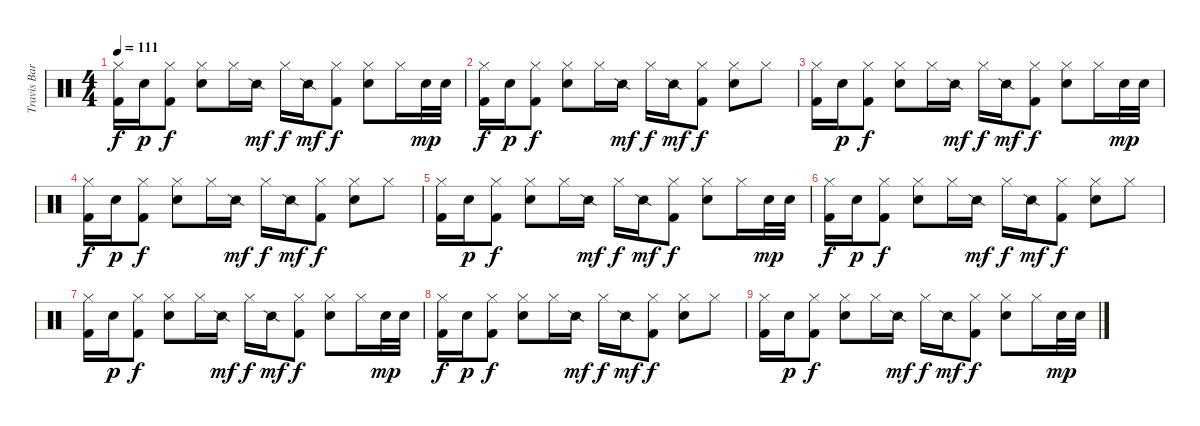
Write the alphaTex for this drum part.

\track ("Travis Barker - Drums" "Travis Bar") {instrument percussion}
\staff {score}
\articulation defaults
\ts (4 4)
\tempo 111
\clef neutral
\ks c
("Hi-Hat (closed)" "Kick (hit) 2").16{dy f} "Electric Snare (hit)".16{dy p} ("Hi-Hat (closed)" "Kick (hit) 2").8{dy f} ("Hi-Hat (closed)" "Electric Snare (hit)").8 "Hi-Hat (closed)".16 "Snare (side stick) 2".16{dy mf} "Hi-Hat (closed)".16{dy f} "Snare (side stick) 2".16{dy mf} ("Hi-Hat (closed)" "Kick (hit) 2").8{dy f} ("Hi-Hat (closed)" "Electric Snare (hit)").8 "Hi-Hat (closed)".16 "Electric Snare (hit)".32{dy mp} "Electric Snare (hit)".32 |
("Hi-Hat (closed)" "Kick (hit) 2").16{dy f} "Electric Snare (hit)".16{dy p} ("Hi-Hat (closed)" "Kick (hit) 2").8{dy f} ("Hi-Hat (closed)" "Electric Snare (hit)").8 "Hi-Hat (closed)".16 "Snare (side stick) 2".16{dy mf} "Hi-Hat (closed)".16{dy f} "Snare (side stick) 2".16{dy mf} ("Hi-Hat (closed)" "Kick (hit) 2").8{dy f} ("Hi-Hat (closed)" "Electric Snare (hit)").8 "Hi-Hat (closed)".8 |
("Hi-Hat (closed)" "Kick (hit) 2").16{volume 7} "Electric Snare (hit)".16{dy p} ("Hi-Hat (closed)" "Kick (hit) 2").8{dy f} ("Hi-Hat (closed)" "Electric Snare (hit)").8 "Hi-Hat (closed)".16 "Snare (side stick) 2".16{dy mf} "Hi-Hat (closed)".16{dy f} "Snare (side stick) 2".16{dy mf} ("Hi-Hat (closed)" "Kick (hit) 2").8{dy f} ("Hi-Hat (closed)" "Electric Snare (hit)").8 "Hi-Hat (closed)".16 "Electric Snare (hit)".32{dy mp} "Electric Snare (hit)".32 |
("Hi-Hat (closed)" "Kick (hit) 2").16{dy f} "Electric Snare (hit)".16{dy p} ("Hi-Hat (closed)" "Kick (hit) 2").8{dy f} ("Hi-Hat (closed)" "Electric Snare (hit)").8 "Hi-Hat (closed)".16 "Snare (side stick) 2".16{dy mf} "Hi-Hat (closed)".16{dy f} "Snare (side stick) 2".16{dy mf} ("Hi-Hat (closed)" "Kick (hit) 2").8{dy f} ("Hi-Hat (closed)" "Electric Snare (hit)").8 "Hi-Hat (closed)".8 |
("Hi-Hat (closed)" "Kick (hit) 2").16 "Electric Snare (hit)".16{dy p} ("Hi-Hat (closed)" "Kick (hit) 2").8{dy f} ("Hi-Hat (closed)" "Electric Snare (hit)").8 "Hi-Hat (closed)".16 "Snare (side stick) 2".16{dy mf} "Hi-Hat (closed)".16{dy f} "Snare (side stick) 2".16{dy mf} ("Hi-Hat (closed)" "Kick (hit) 2").8{dy f} ("Hi-Hat (closed)" "Electric Snare (hit)").8 "Hi-Hat (closed)".16 "Electric Snare (hit)".32{dy mp} "Electric Snare (hit)".32 |
("Hi-Hat (closed)" "Kick (hit) 2").16{dy f volume 4} "Electric Snare (hit)".16{dy p} ("Hi-Hat (closed)" "Kick (hit) 2").8{dy f} ("Hi-Hat (closed)" "Electric Snare (hit)").8 "Hi-Hat (closed)".16 "Snare (side stick) 2".16{dy mf} "Hi-Hat (closed)".16{dy f} "Snare (side stick) 2".16{dy mf} ("Hi-Hat (closed)" "Kick (hit) 2").8{dy f} ("Hi-Hat (closed)" "Electric Snare (hit)").8 "Hi-Hat (closed)".8 |
("Hi-Hat (closed)" "Kick (hit) 2").16 "Electric Snare (hit)".16{dy p} ("Hi-Hat (closed)" "Kick (hit) 2").8{dy f} ("Hi-Hat (closed)" "Electric Snare (hit)").8 "Hi-Hat (closed)".16 "Snare (side stick) 2".16{dy mf} "Hi-Hat (closed)".16{dy f} "Snare (side stick) 2".16{dy mf} ("Hi-Hat (closed)" "Kick (hit) 2").8{dy f} ("Hi-Hat (closed)" "Electric Snare (hit)").8 "Hi-Hat (closed)".16 "Electric Snare (hit)".32{dy mp} "Electric Snare (hit)".32 |
("Hi-Hat (closed)" "Kick (hit) 2").16{dy f volume 0} "Electric Snare (hit)".16{dy p} ("Hi-Hat (closed)" "Kick (hit) 2").8{dy f} ("Hi-Hat (closed)" "Electric Snare (hit)").8 "Hi-Hat (closed)".16 "Snare (side stick) 2".16{dy mf} "Hi-Hat (closed)".16{dy f} "Snare (side stick) 2".16{dy mf} ("Hi-Hat (closed)" "Kick (hit) 2").8{dy f} ("Hi-Hat (closed)" "Electric Snare (hit)").8 "Hi-Hat (closed)".8 |
("Hi-Hat (closed)" "Kick (hit) 2").16 "Electric Snare (hit)".16{dy p} ("Hi-Hat (closed)" "Kick (hit) 2").8{dy f} ("Hi-Hat (closed)" "Electric Snare (hit)").8 "Hi-Hat (closed)".16 "Snare (side stick) 2".16{dy mf} "Hi-Hat (closed)".16{dy f} "Snare (side stick) 2".16{dy mf} ("Hi-Hat (closed)" "Kick (hit) 2").8{dy f} ("Hi-Hat (closed)" "Electric Snare (hit)").8 "Hi-Hat (closed)".16 "Electric Snare (hit)".32{dy mp} "Electric Snare (hit)".32
